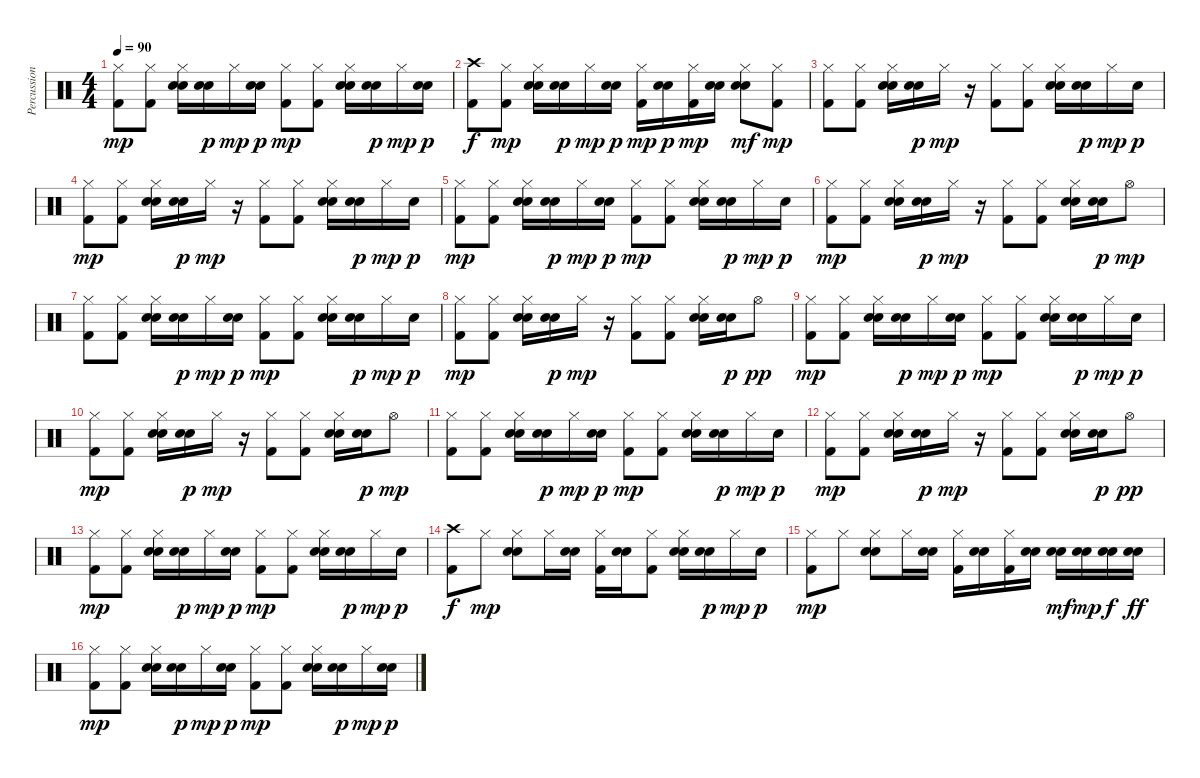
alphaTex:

\track ("Percussion" "Percussion") {instrument percussion}
\staff {score}
\articulation defaults
\ts (4 4)
\tempo 90
\clef neutral
\ks c
("Hi-Hat (closed)" "Kick (hit) 2").8{dy mp} ("Hi-Hat (closed)" "Kick (hit) 2").8 ("Hi-Hat (closed)" "Electric Snare (hit)" "Snare (hit) 2").16 ("Electric Snare (hit)" "Snare (hit) 2").16{dy p} "Hi-Hat (closed)".16{dy mp} ("Electric Snare (hit)" "Snare (hit) 2").16{dy p} ("Hi-Hat (closed)" "Kick (hit) 2").8{dy mp} ("Hi-Hat (closed)" "Kick (hit) 2").8 ("Hi-Hat (closed)" "Electric Snare (hit)" "Snare (hit) 2").16 ("Electric Snare (hit)" "Snare (hit) 2").16{dy p} "Hi-Hat (closed)".16{dy mp} ("Electric Snare (hit)" "Snare (hit) 2").16{dy p} |
("Crash high (hit)" "Kick (hit) 2").8{dy f} ("Hi-Hat (closed)" "Kick (hit) 2").8{dy mp} ("Hi-Hat (closed)" "Electric Snare (hit)" "Snare (hit) 2").16 ("Electric Snare (hit)" "Snare (hit) 2").16{dy p} "Hi-Hat (closed)".16{dy mp} ("Electric Snare (hit)" "Snare (hit) 2").16{dy p} ("Hi-Hat (closed)" "Kick (hit) 2").16{dy mp} ("Electric Snare (hit)" "Snare (hit) 2").16{dy p} ("Hi-Hat (closed)" "Kick (hit) 2").16{dy mp} ("Electric Snare (hit)" "Snare (hit) 2").16 ("Hi-Hat (closed)" "Electric Snare (hit)" "Snare (hit) 2").8{dy mf} ("Hi-Hat (closed)" "Kick (hit) 2").8{dy mp} |
("Hi-Hat (closed)" "Kick (hit) 2").8 ("Hi-Hat (closed)" "Kick (hit) 2").8 ("Hi-Hat (closed)" "Electric Snare (hit)" "Snare (hit) 2").16 ("Electric Snare (hit)" "Snare (hit) 2").16{dy p} "Hi-Hat (closed)".16{dy mp} r.16 ("Hi-Hat (closed)" "Kick (hit) 2").8 ("Hi-Hat (closed)" "Kick (hit) 2").8 ("Hi-Hat (closed)" "Electric Snare (hit)" "Snare (hit) 2").16 ("Electric Snare (hit)" "Snare (hit) 2").16{dy p} "Hi-Hat (closed)".16{dy mp} "Snare (hit) 2".16{dy p} |
("Hi-Hat (closed)" "Kick (hit) 2").8{dy mp} ("Hi-Hat (closed)" "Kick (hit) 2").8 ("Hi-Hat (closed)" "Electric Snare (hit)" "Snare (hit) 2").16 ("Electric Snare (hit)" "Snare (hit) 2").16{dy p} "Hi-Hat (closed)".16{dy mp} r.16 ("Hi-Hat (closed)" "Kick (hit) 2").8 ("Hi-Hat (closed)" "Kick (hit) 2").8 ("Hi-Hat (closed)" "Electric Snare (hit)" "Snare (hit) 2").16 ("Electric Snare (hit)" "Snare (hit) 2").16{dy p} "Hi-Hat (closed)".16{dy mp} "Snare (hit) 2".16{dy p} |
("Hi-Hat (closed)" "Kick (hit) 2").8{dy mp} ("Hi-Hat (closed)" "Kick (hit) 2").8 ("Hi-Hat (closed)" "Electric Snare (hit)" "Snare (hit) 2").16 ("Electric Snare (hit)" "Snare (hit) 2").16{dy p} "Hi-Hat (closed)".16{dy mp} ("Electric Snare (hit)" "Snare (hit) 2").16{dy p} ("Hi-Hat (closed)" "Kick (hit) 2").8{dy mp} ("Hi-Hat (closed)" "Kick (hit) 2").8 ("Hi-Hat (closed)" "Electric Snare (hit)" "Snare (hit) 2").16 ("Electric Snare (hit)" "Snare (hit) 2").16{dy p} "Hi-Hat (closed)".16{dy mp} "Snare (hit) 2".16{dy p} |
("Hi-Hat (closed)" "Kick (hit) 2").8{dy mp} ("Hi-Hat (closed)" "Kick (hit) 2").8 ("Hi-Hat (closed)" "Electric Snare (hit)" "Snare (hit) 2").16 ("Electric Snare (hit)" "Snare (hit) 2").16{dy p} "Hi-Hat (closed)".16{dy mp} r.16 ("Hi-Hat (closed)" "Kick (hit) 2").8 ("Hi-Hat (closed)" "Kick (hit) 2").8 ("Hi-Hat (closed)" "Electric Snare (hit)" "Snare (hit) 2").16 ("Electric Snare (hit)" "Snare (hit) 2").16{dy p} "Hi-Hat (open)".8{dy mp} |
("Hi-Hat (closed)" "Kick (hit) 2").8 ("Hi-Hat (closed)" "Kick (hit) 2").8 ("Hi-Hat (closed)" "Electric Snare (hit)" "Snare (hit) 2").16 ("Electric Snare (hit)" "Snare (hit) 2").16{dy p} "Hi-Hat (closed)".16{dy mp} ("Electric Snare (hit)" "Snare (hit) 2").16{dy p} ("Hi-Hat (closed)" "Kick (hit) 2").8{dy mp} ("Hi-Hat (closed)" "Kick (hit) 2").8 ("Hi-Hat (closed)" "Electric Snare (hit)" "Snare (hit) 2").16 ("Electric Snare (hit)" "Snare (hit) 2").16{dy p} "Hi-Hat (closed)".16{dy mp} "Snare (hit) 2".16{dy p} |
("Hi-Hat (closed)" "Kick (hit) 2").8{dy mp} ("Hi-Hat (closed)" "Kick (hit) 2").8 ("Hi-Hat (closed)" "Electric Snare (hit)" "Snare (hit) 2").16 ("Electric Snare (hit)" "Snare (hit) 2").16{dy p} "Hi-Hat (closed)".16{dy mp} r.16 ("Hi-Hat (closed)" "Kick (hit) 2").8 ("Hi-Hat (closed)" "Kick (hit) 2").8 ("Hi-Hat (closed)" "Electric Snare (hit)" "Snare (hit) 2").16 ("Electric Snare (hit)" "Snare (hit) 2").16{dy p} "Hi-Hat (open)".8{dy pp} |
("Hi-Hat (closed)" "Kick (hit) 2").8{dy mp} ("Hi-Hat (closed)" "Kick (hit) 2").8 ("Hi-Hat (closed)" "Electric Snare (hit)" "Snare (hit) 2").16 ("Electric Snare (hit)" "Snare (hit) 2").16{dy p} "Hi-Hat (closed)".16{dy mp} ("Electric Snare (hit)" "Snare (hit) 2").16{dy p} ("Hi-Hat (closed)" "Kick (hit) 2").8{dy mp} ("Hi-Hat (closed)" "Kick (hit) 2").8 ("Hi-Hat (closed)" "Electric Snare (hit)" "Snare (hit) 2").16 ("Electric Snare (hit)" "Snare (hit) 2").16{dy p} "Hi-Hat (closed)".16{dy mp} "Snare (hit) 2".16{dy p} |
("Hi-Hat (closed)" "Kick (hit) 2").8{dy mp} ("Hi-Hat (closed)" "Kick (hit) 2").8 ("Hi-Hat (closed)" "Electric Snare (hit)" "Snare (hit) 2").16 ("Electric Snare (hit)" "Snare (hit) 2").16{dy p} "Hi-Hat (closed)".16{dy mp} r.16 ("Hi-Hat (closed)" "Kick (hit) 2").8 ("Hi-Hat (closed)" "Kick (hit) 2").8 ("Hi-Hat (closed)" "Electric Snare (hit)" "Snare (hit) 2").16 ("Electric Snare (hit)" "Snare (hit) 2").16{dy p} "Hi-Hat (open)".8{dy mp} |
("Hi-Hat (closed)" "Kick (hit) 2").8 ("Hi-Hat (closed)" "Kick (hit) 2").8 ("Hi-Hat (closed)" "Electric Snare (hit)" "Snare (hit) 2").16 ("Electric Snare (hit)" "Snare (hit) 2").16{dy p} "Hi-Hat (closed)".16{dy mp} ("Electric Snare (hit)" "Snare (hit) 2").16{dy p} ("Hi-Hat (closed)" "Kick (hit) 2").8{dy mp} ("Hi-Hat (closed)" "Kick (hit) 2").8 ("Hi-Hat (closed)" "Electric Snare (hit)" "Snare (hit) 2").16 ("Electric Snare (hit)" "Snare (hit) 2").16{dy p} "Hi-Hat (closed)".16{dy mp} "Snare (hit) 2".16{dy p} |
("Hi-Hat (closed)" "Kick (hit) 2").8{dy mp} ("Hi-Hat (closed)" "Kick (hit) 2").8 ("Hi-Hat (closed)" "Electric Snare (hit)" "Snare (hit) 2").16 ("Electric Snare (hit)" "Snare (hit) 2").16{dy p} "Hi-Hat (closed)".16{dy mp} r.16 ("Hi-Hat (closed)" "Kick (hit) 2").8 ("Hi-Hat (closed)" "Kick (hit) 2").8 ("Hi-Hat (closed)" "Electric Snare (hit)" "Snare (hit) 2").16 ("Electric Snare (hit)" "Snare (hit) 2").16{dy p} "Hi-Hat (open)".8{dy pp} |
("Hi-Hat (closed)" "Kick (hit) 2").8{dy mp} ("Hi-Hat (closed)" "Kick (hit) 2").8 ("Hi-Hat (closed)" "Electric Snare (hit)" "Snare (hit) 2").16 ("Electric Snare (hit)" "Snare (hit) 2").16{dy p} "Hi-Hat (closed)".16{dy mp} ("Electric Snare (hit)" "Snare (hit) 2").16{dy p} ("Hi-Hat (closed)" "Kick (hit) 2").8{dy mp} ("Hi-Hat (closed)" "Kick (hit) 2").8 ("Hi-Hat (closed)" "Electric Snare (hit)" "Snare (hit) 2").16 ("Electric Snare (hit)" "Snare (hit) 2").16{dy p} "Hi-Hat (closed)".16{dy mp} "Snare (hit) 2".16{dy p} |
("Crash high (hit)" "Kick (hit) 2").8{dy f} "Hi-Hat (closed)".8{dy mp} ("Hi-Hat (closed)" "Electric Snare (hit)" "Snare (hit) 2").8 "Hi-Hat (closed)".16 ("Electric Snare (hit)" "Snare (hit) 2").16 ("Hi-Hat (closed)" "Kick (hit) 2").16 ("Electric Snare (hit)" "Snare (hit) 2").16 ("Hi-Hat (closed)" "Kick (hit) 2").8 ("Hi-Hat (closed)" "Electric Snare (hit)" "Snare (hit) 2").16 ("Electric Snare (hit)" "Snare (hit) 2").16{dy p} "Hi-Hat (closed)".16{dy mp} "Snare (hit) 2".16{dy p} |
("Hi-Hat (closed)" "Kick (hit) 2").8{dy mp} "Hi-Hat (closed)".8 ("Hi-Hat (closed)" "Electric Snare (hit)" "Snare (hit) 2").8 "Hi-Hat (closed)".16 ("Electric Snare (hit)" "Snare (hit) 2").16 ("Hi-Hat (closed)" "Kick (hit) 2").16 ("Electric Snare (hit)" "Snare (hit) 2").16 ("Hi-Hat (closed)" "Kick (hit) 2").16 ("Electric Snare (hit)" "Snare (hit) 2").16 ("Electric Snare (hit)" "Snare (hit) 2").16{dy mf} ("Electric Snare (hit)" "Snare (hit) 2").16{dy mp} ("Electric Snare (hit)" "Snare (hit) 2").16{dy f} ("Electric Snare (hit)" "Snare (hit) 2").16{dy ff} |
("Hi-Hat (closed)" "Kick (hit) 2").8{dy mp} ("Hi-Hat (closed)" "Kick (hit) 2").8 ("Hi-Hat (closed)" "Electric Snare (hit)" "Snare (hit) 2").16 ("Electric Snare (hit)" "Snare (hit) 2").16{dy p} "Hi-Hat (closed)".16{dy mp} ("Electric Snare (hit)" "Snare (hit) 2").16{dy p} ("Hi-Hat (closed)" "Kick (hit) 2").8{dy mp} ("Hi-Hat (closed)" "Kick (hit) 2").8 ("Hi-Hat (closed)" "Electric Snare (hit)" "Snare (hit) 2").16 ("Electric Snare (hit)" "Snare (hit) 2").16{dy p} "Hi-Hat (closed)".16{dy mp} ("Electric Snare (hit)" "Snare (hit) 2").16{dy p}
